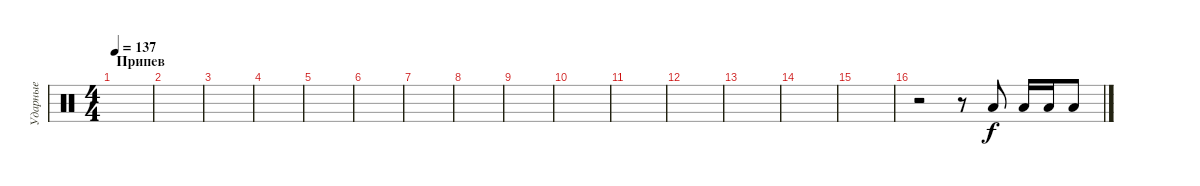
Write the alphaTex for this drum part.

\track ("Ударные" "Ударные") {instrument percussion}
\staff {score}
\articulation defaults
\ts (4 4)
\section ("" "Припев")
\tempo 137
\clef neutral
\ks c
|
|
|
|
|
|
|
|
|
|
|
|
|
|
|
r.2 r.8 "Low Tom (hit)".8 "Low Tom (hit)".16 "Low Tom (hit)".16 "Low Tom (hit)".8
